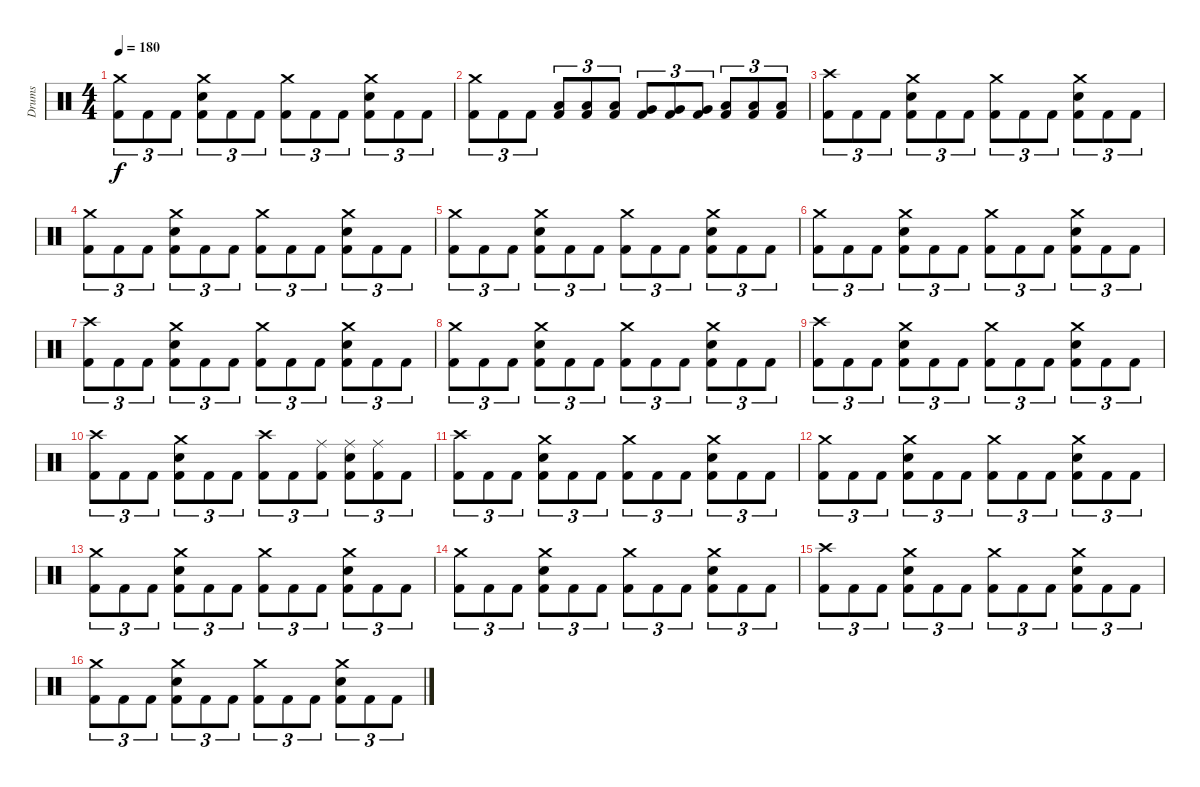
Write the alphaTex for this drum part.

\track ("Drums" "Drums") {instrument percussion}
\staff {score}
\articulation defaults
\ts (4 4)
\tempo 180
\clef neutral
\ks c
("Crash medium (hit)" "Kick (hit) 2").8{tu (3 2) dy f} "Kick (hit) 2".8{tu (3 2)} "Kick (hit) 2".8{tu (3 2)} ("Crash medium (hit)" "Electric Snare (hit)" "Kick (hit) 2").8{tu (3 2)} "Kick (hit) 2".8{tu (3 2)} "Kick (hit) 2".8{tu (3 2)} ("Crash medium (hit)" "Kick (hit) 2").8{tu (3 2)} "Kick (hit) 2".8{tu (3 2)} "Kick (hit) 2".8{tu (3 2)} ("Crash medium (hit)" "Electric Snare (hit)" "Kick (hit) 2").8{tu (3 2)} "Kick (hit) 2".8{tu (3 2)} "Kick (hit) 2".8{tu (3 2)} |
("Crash medium (hit)" "Kick (hit) 2").8{tu (3 2)} "Kick (hit) 2".8{tu (3 2)} "Kick (hit) 2".8{tu (3 2)} ("Low Tom (hit)" "Kick (hit) 2").8{tu (3 2)} ("Low Tom (hit)" "Kick (hit) 2").8{tu (3 2)} ("Low Tom (hit)" "Kick (hit) 2").8{tu (3 2)} ("Very Low Tom (hit)" "Kick (hit) 2").8{tu (3 2)} ("Very Low Tom (hit)" "Kick (hit) 2").8{tu (3 2)} ("Very Low Tom (hit)" "Kick (hit) 2").8{tu (3 2)} ("Low Tom (hit)" "Kick (hit) 2").8{tu (3 2)} ("Low Tom (hit)" "Kick (hit) 2").8{tu (3 2)} ("Low Tom (hit)" "Kick (hit) 2").8{tu (3 2)} |
("Crash high (hit)" "Kick (hit) 2").8{tu (3 2)} "Kick (hit) 2".8{tu (3 2)} "Kick (hit) 2".8{tu (3 2)} ("Crash medium (hit)" "Electric Snare (hit)" "Kick (hit) 2").8{tu (3 2)} "Kick (hit) 2".8{tu (3 2)} "Kick (hit) 2".8{tu (3 2)} ("Crash medium (hit)" "Kick (hit) 2").8{tu (3 2)} "Kick (hit) 2".8{tu (3 2)} "Kick (hit) 2".8{tu (3 2)} ("Crash medium (hit)" "Electric Snare (hit)" "Kick (hit) 2").8{tu (3 2)} "Kick (hit) 2".8{tu (3 2)} "Kick (hit) 2".8{tu (3 2)} |
("Crash medium (hit)" "Kick (hit) 2").8{tu (3 2)} "Kick (hit) 2".8{tu (3 2)} "Kick (hit) 2".8{tu (3 2)} ("Crash medium (hit)" "Electric Snare (hit)" "Kick (hit) 2").8{tu (3 2)} "Kick (hit) 2".8{tu (3 2)} "Kick (hit) 2".8{tu (3 2)} ("Crash medium (hit)" "Kick (hit) 2").8{tu (3 2)} "Kick (hit) 2".8{tu (3 2)} "Kick (hit) 2".8{tu (3 2)} ("Crash medium (hit)" "Electric Snare (hit)" "Kick (hit) 2").8{tu (3 2)} "Kick (hit) 2".8{tu (3 2)} "Kick (hit) 2".8{tu (3 2)} |
("Crash medium (hit)" "Kick (hit) 2").8{tu (3 2)} "Kick (hit) 2".8{tu (3 2)} "Kick (hit) 2".8{tu (3 2)} ("Crash medium (hit)" "Electric Snare (hit)" "Kick (hit) 2").8{tu (3 2)} "Kick (hit) 2".8{tu (3 2)} "Kick (hit) 2".8{tu (3 2)} ("Crash medium (hit)" "Kick (hit) 2").8{tu (3 2)} "Kick (hit) 2".8{tu (3 2)} "Kick (hit) 2".8{tu (3 2)} ("Crash medium (hit)" "Electric Snare (hit)" "Kick (hit) 2").8{tu (3 2)} "Kick (hit) 2".8{tu (3 2)} "Kick (hit) 2".8{tu (3 2)} |
("Crash medium (hit)" "Kick (hit) 2").8{tu (3 2)} "Kick (hit) 2".8{tu (3 2)} "Kick (hit) 2".8{tu (3 2)} ("Crash medium (hit)" "Electric Snare (hit)" "Kick (hit) 2").8{tu (3 2)} "Kick (hit) 2".8{tu (3 2)} "Kick (hit) 2".8{tu (3 2)} ("Crash medium (hit)" "Kick (hit) 2").8{tu (3 2)} "Kick (hit) 2".8{tu (3 2)} "Kick (hit) 2".8{tu (3 2)} ("Crash medium (hit)" "Electric Snare (hit)" "Kick (hit) 2").8{tu (3 2)} "Kick (hit) 2".8{tu (3 2)} "Kick (hit) 2".8{tu (3 2)} |
("Crash high (hit)" "Kick (hit) 2").8{tu (3 2)} "Kick (hit) 2".8{tu (3 2)} "Kick (hit) 2".8{tu (3 2)} ("Crash medium (hit)" "Electric Snare (hit)" "Kick (hit) 2").8{tu (3 2)} "Kick (hit) 2".8{tu (3 2)} "Kick (hit) 2".8{tu (3 2)} ("Crash medium (hit)" "Kick (hit) 2").8{tu (3 2)} "Kick (hit) 2".8{tu (3 2)} "Kick (hit) 2".8{tu (3 2)} ("Crash medium (hit)" "Electric Snare (hit)" "Kick (hit) 2").8{tu (3 2)} "Kick (hit) 2".8{tu (3 2)} "Kick (hit) 2".8{tu (3 2)} |
("Crash medium (hit)" "Kick (hit) 2").8{tu (3 2)} "Kick (hit) 2".8{tu (3 2)} "Kick (hit) 2".8{tu (3 2)} ("Crash medium (hit)" "Electric Snare (hit)" "Kick (hit) 2").8{tu (3 2)} "Kick (hit) 2".8{tu (3 2)} "Kick (hit) 2".8{tu (3 2)} ("Crash medium (hit)" "Kick (hit) 2").8{tu (3 2)} "Kick (hit) 2".8{tu (3 2)} "Kick (hit) 2".8{tu (3 2)} ("Crash medium (hit)" "Electric Snare (hit)" "Kick (hit) 2").8{tu (3 2)} "Kick (hit) 2".8{tu (3 2)} "Kick (hit) 2".8{tu (3 2)} |
("Crash high (hit)" "Kick (hit) 2").8{tu (3 2)} "Kick (hit) 2".8{tu (3 2)} "Kick (hit) 2".8{tu (3 2)} ("Crash medium (hit)" "Electric Snare (hit)" "Kick (hit) 2").8{tu (3 2)} "Kick (hit) 2".8{tu (3 2)} "Kick (hit) 2".8{tu (3 2)} ("Crash medium (hit)" "Kick (hit) 2").8{tu (3 2)} "Kick (hit) 2".8{tu (3 2)} "Kick (hit) 2".8{tu (3 2)} ("Crash medium (hit)" "Electric Snare (hit)" "Kick (hit) 2").8{tu (3 2)} "Kick (hit) 2".8{tu (3 2)} "Kick (hit) 2".8{tu (3 2)} |
("Crash high (hit)" "Kick (hit) 2").8{tu (3 2)} "Kick (hit) 2".8{tu (3 2)} "Kick (hit) 2".8{tu (3 2)} ("Crash medium (hit)" "Electric Snare (hit)" "Kick (hit) 2").8{tu (3 2)} "Kick (hit) 2".8{tu (3 2)} "Kick (hit) 2".8{tu (3 2)} ("Crash high (hit)" "Kick (hit) 2").8{tu (3 2)} "Kick (hit) 2".8{tu (3 2)} ("Ride (middle)" "Kick (hit) 2").8{tu (3 2)} ("Ride (middle)" "Electric Snare (hit)" "Kick (hit) 2").8{tu (3 2)} ("Ride (middle)" "Kick (hit) 2").8{tu (3 2)} "Kick (hit) 2".8{tu (3 2)} |
("Crash high (hit)" "Kick (hit) 2").8{tu (3 2)} "Kick (hit) 2".8{tu (3 2)} "Kick (hit) 2".8{tu (3 2)} ("Crash medium (hit)" "Electric Snare (hit)" "Kick (hit) 2").8{tu (3 2)} "Kick (hit) 2".8{tu (3 2)} "Kick (hit) 2".8{tu (3 2)} ("Crash medium (hit)" "Kick (hit) 2").8{tu (3 2)} "Kick (hit) 2".8{tu (3 2)} "Kick (hit) 2".8{tu (3 2)} ("Crash medium (hit)" "Electric Snare (hit)" "Kick (hit) 2").8{tu (3 2)} "Kick (hit) 2".8{tu (3 2)} "Kick (hit) 2".8{tu (3 2)} |
("Crash medium (hit)" "Kick (hit) 2").8{tu (3 2)} "Kick (hit) 2".8{tu (3 2)} "Kick (hit) 2".8{tu (3 2)} ("Crash medium (hit)" "Electric Snare (hit)" "Kick (hit) 2").8{tu (3 2)} "Kick (hit) 2".8{tu (3 2)} "Kick (hit) 2".8{tu (3 2)} ("Crash medium (hit)" "Kick (hit) 2").8{tu (3 2)} "Kick (hit) 2".8{tu (3 2)} "Kick (hit) 2".8{tu (3 2)} ("Crash medium (hit)" "Electric Snare (hit)" "Kick (hit) 2").8{tu (3 2)} "Kick (hit) 2".8{tu (3 2)} "Kick (hit) 2".8{tu (3 2)} |
("Crash medium (hit)" "Kick (hit) 2").8{tu (3 2)} "Kick (hit) 2".8{tu (3 2)} "Kick (hit) 2".8{tu (3 2)} ("Crash medium (hit)" "Electric Snare (hit)" "Kick (hit) 2").8{tu (3 2)} "Kick (hit) 2".8{tu (3 2)} "Kick (hit) 2".8{tu (3 2)} ("Crash medium (hit)" "Kick (hit) 2").8{tu (3 2)} "Kick (hit) 2".8{tu (3 2)} "Kick (hit) 2".8{tu (3 2)} ("Crash medium (hit)" "Electric Snare (hit)" "Kick (hit) 2").8{tu (3 2)} "Kick (hit) 2".8{tu (3 2)} "Kick (hit) 2".8{tu (3 2)} |
("Crash medium (hit)" "Kick (hit) 2").8{tu (3 2)} "Kick (hit) 2".8{tu (3 2)} "Kick (hit) 2".8{tu (3 2)} ("Crash medium (hit)" "Electric Snare (hit)" "Kick (hit) 2").8{tu (3 2)} "Kick (hit) 2".8{tu (3 2)} "Kick (hit) 2".8{tu (3 2)} ("Crash medium (hit)" "Kick (hit) 2").8{tu (3 2)} "Kick (hit) 2".8{tu (3 2)} "Kick (hit) 2".8{tu (3 2)} ("Crash medium (hit)" "Electric Snare (hit)" "Kick (hit) 2").8{tu (3 2)} "Kick (hit) 2".8{tu (3 2)} "Kick (hit) 2".8{tu (3 2)} |
("Crash high (hit)" "Kick (hit) 2").8{tu (3 2)} "Kick (hit) 2".8{tu (3 2)} "Kick (hit) 2".8{tu (3 2)} ("Crash medium (hit)" "Electric Snare (hit)" "Kick (hit) 2").8{tu (3 2)} "Kick (hit) 2".8{tu (3 2)} "Kick (hit) 2".8{tu (3 2)} ("Crash medium (hit)" "Kick (hit) 2").8{tu (3 2)} "Kick (hit) 2".8{tu (3 2)} "Kick (hit) 2".8{tu (3 2)} ("Crash medium (hit)" "Electric Snare (hit)" "Kick (hit) 2").8{tu (3 2)} "Kick (hit) 2".8{tu (3 2)} "Kick (hit) 2".8{tu (3 2)} |
("Crash medium (hit)" "Kick (hit) 2").8{tu (3 2)} "Kick (hit) 2".8{tu (3 2)} "Kick (hit) 2".8{tu (3 2)} ("Crash medium (hit)" "Electric Snare (hit)" "Kick (hit) 2").8{tu (3 2)} "Kick (hit) 2".8{tu (3 2)} "Kick (hit) 2".8{tu (3 2)} ("Crash medium (hit)" "Kick (hit) 2").8{tu (3 2)} "Kick (hit) 2".8{tu (3 2)} "Kick (hit) 2".8{tu (3 2)} ("Crash medium (hit)" "Electric Snare (hit)" "Kick (hit) 2").8{tu (3 2)} "Kick (hit) 2".8{tu (3 2)} "Kick (hit) 2".8{tu (3 2)}
